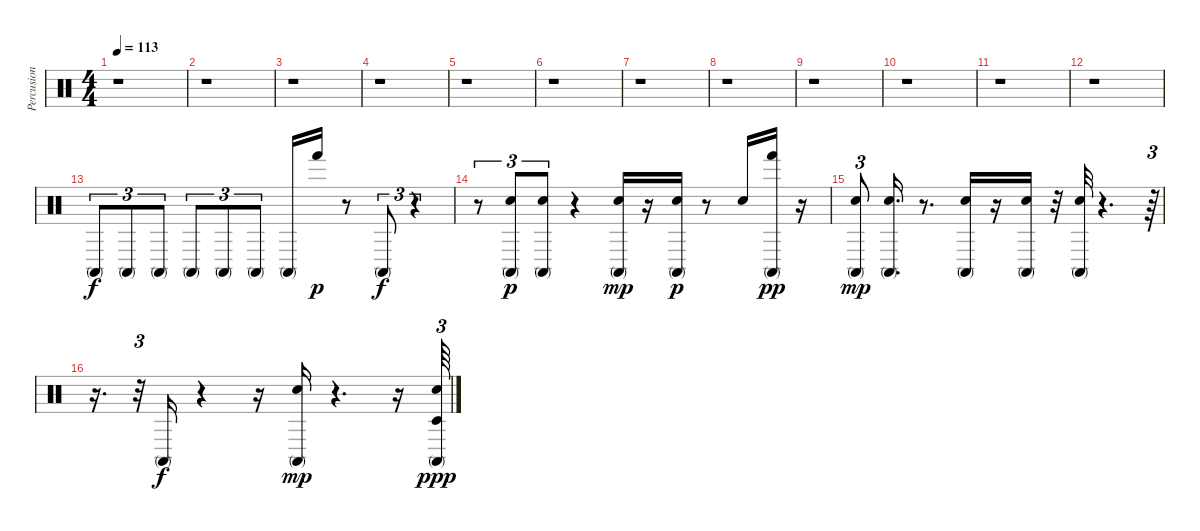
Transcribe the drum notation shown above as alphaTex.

\track ("Percusion" "Percusion") {instrument percussion}
\staff {score}
\articulation defaults
\ts (4 4)
\tempo 113
\clef neutral
\ks c
r.1{dy f} |
r.1 |
r.1 |
r.1 |
r.1 |
r.1 |
r.1 |
r.1 |
r.1 |
r.1 |
r.1 |
r.1 |
"Conga high (mute)".8{tu (3 2)} "Conga high (mute)".8{tu (3 2)} "Conga high (mute)".8{tu (3 2)} "Conga high (mute)".8{tu (3 2)} "Conga high (mute)".8{tu (3 2)} "Conga high (mute)".8{tu (3 2)} "Conga high (mute)".16 "Hand (hit)".16{dy p} r.8 "Conga high (mute)".8{tu (3 2) dy f} r.4{tu (3 2)} |
r.8{tu (3 2)} ("Conga high (mute)" "Electric Snare (hit)").8{tu (3 2) dy p} ("Conga high (mute)" "Electric Snare (hit)").8{tu (3 2)} r.4 ("Electric Snare (hit)" "Conga high (mute)").16{dy mp} r.16 ("Electric Snare (hit)" "Conga high (mute)").16{dy p} r.8 "Electric Snare (hit)".16 ("Conga high (mute)" "Hand (hit)").16{dy pp} r.16 |
("Conga high (mute)" "Electric Snare (hit)").8{tu (3 2) dy mp} ("Conga high (mute)" "Electric Snare (hit)").16{d} r.8{d} ("Conga high (mute)" "Electric Snare (hit)").16 r.16 ("Conga high (mute)" "Electric Snare (hit)").16 r.32 ("Conga high (mute)" "Electric Snare (hit)").32 r.4{d} r.64{tu (3 2)} |
r.16{d} r.32{tu (3 2)} "Conga high (mute)".16{dy f} r.4 r.16 ("Conga high (mute)" "Electric Snare (hit)").16{dy mp} r.4{d} r.16 ("Electric Snare (hit)" "Timbale low (hit)" "Conga high (mute)").64{tu (3 2) dy ppp}
